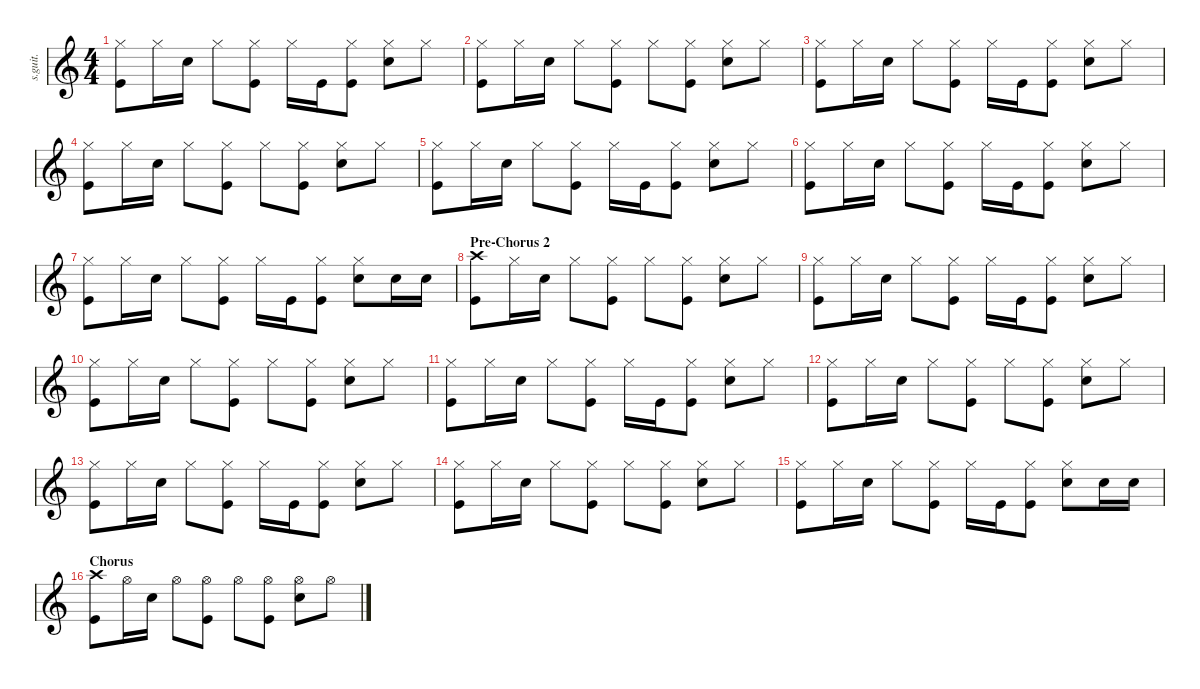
\defaultSystemsLayout 4
\hideDynamics
\bracketExtendMode nobrackets
\track ("Rob Bourdon" "s.guit.") {instrument percussion}
\staff {score}
\articulation defaults
\ts (4 4)
\tempo (110 hide)
\clef g2
\ks c
("Hi-Hat (closed)" "Kick (hit)").8{dy f} "Hi-Hat (closed)".16 "Snare (hit) 2".16 "Hi-Hat (closed)".8 ("Hi-Hat (closed)" "Kick (hit)").8 "Hi-Hat (closed)".16 "Kick (hit)".16 ("Hi-Hat (closed)" "Kick (hit)").8 ("Hi-Hat (closed)" "Snare (hit) 2").8 "Hi-Hat (closed)".8 |
("Hi-Hat (closed)" "Kick (hit)").8 "Hi-Hat (closed)".16 "Snare (hit) 2".16 "Hi-Hat (closed)".8 ("Hi-Hat (closed)" "Kick (hit)").8 "Hi-Hat (closed)".8 ("Hi-Hat (closed)" "Kick (hit)").8 ("Hi-Hat (closed)" "Snare (hit) 2").8 "Hi-Hat (closed)".8 |
("Hi-Hat (closed)" "Kick (hit)").8 "Hi-Hat (closed)".16 "Snare (hit) 2".16 "Hi-Hat (closed)".8 ("Hi-Hat (closed)" "Kick (hit)").8 "Hi-Hat (closed)".16 "Kick (hit)".16 ("Hi-Hat (closed)" "Kick (hit)").8 ("Hi-Hat (closed)" "Snare (hit) 2").8 "Hi-Hat (closed)".8 |
("Hi-Hat (closed)" "Kick (hit)").8 "Hi-Hat (closed)".16 "Snare (hit) 2".16 "Hi-Hat (closed)".8 ("Hi-Hat (closed)" "Kick (hit)").8 "Hi-Hat (closed)".8 ("Hi-Hat (closed)" "Kick (hit)").8 ("Hi-Hat (closed)" "Snare (hit) 2").8 "Hi-Hat (closed)".8 |
("Hi-Hat (closed)" "Kick (hit)").8 "Hi-Hat (closed)".16 "Snare (hit) 2".16 "Hi-Hat (closed)".8 ("Hi-Hat (closed)" "Kick (hit)").8 "Hi-Hat (closed)".16 "Kick (hit)".16 ("Hi-Hat (closed)" "Kick (hit)").8 ("Hi-Hat (closed)" "Snare (hit) 2").8 "Hi-Hat (closed)".8 |
("Hi-Hat (closed)" "Kick (hit)").8 "Hi-Hat (closed)".16 "Snare (hit) 2".16 "Hi-Hat (closed)".8 ("Hi-Hat (closed)" "Kick (hit)").8 "Hi-Hat (closed)".16 "Kick (hit)".16 ("Hi-Hat (closed)" "Kick (hit)").8 ("Hi-Hat (closed)" "Snare (hit) 2").8 "Hi-Hat (closed)".8 |
("Hi-Hat (closed)" "Kick (hit)").8 "Hi-Hat (closed)".16 "Snare (hit) 2".16 "Hi-Hat (closed)".8 ("Hi-Hat (closed)" "Kick (hit)").8 "Hi-Hat (closed)".16 "Kick (hit)".16 ("Hi-Hat (closed)" "Kick (hit)").8 ("Hi-Hat (closed)" "Snare (hit) 2").8 "Snare (hit) 2".16 "Snare (hit) 2".16 |
\section ("" "Pre-Chorus 2")
("Crash high (hit)" "Kick (hit)").8 "Hi-Hat (closed)".16 "Snare (hit) 2".16 "Hi-Hat (closed)".8 ("Hi-Hat (closed)" "Kick (hit)").8 "Hi-Hat (closed)".8 ("Hi-Hat (closed)" "Kick (hit)").8 ("Hi-Hat (closed)" "Snare (hit) 2").8 "Hi-Hat (closed)".8 |
("Hi-Hat (closed)" "Kick (hit)").8 "Hi-Hat (closed)".16 "Snare (hit) 2".16 "Hi-Hat (closed)".8 ("Hi-Hat (closed)" "Kick (hit)").8 "Hi-Hat (closed)".16 "Kick (hit)".16 ("Hi-Hat (closed)" "Kick (hit)").8 ("Hi-Hat (closed)" "Snare (hit) 2").8 "Hi-Hat (closed)".8 |
("Hi-Hat (closed)" "Kick (hit)").8 "Hi-Hat (closed)".16 "Snare (hit) 2".16 "Hi-Hat (closed)".8 ("Hi-Hat (closed)" "Kick (hit)").8 "Hi-Hat (closed)".8 ("Hi-Hat (closed)" "Kick (hit)").8 ("Hi-Hat (closed)" "Snare (hit) 2").8 "Hi-Hat (closed)".8 |
("Hi-Hat (closed)" "Kick (hit)").8 "Hi-Hat (closed)".16 "Snare (hit) 2".16 "Hi-Hat (closed)".8 ("Hi-Hat (closed)" "Kick (hit)").8 "Hi-Hat (closed)".16 "Kick (hit)".16 ("Hi-Hat (closed)" "Kick (hit)").8 ("Hi-Hat (closed)" "Snare (hit) 2").8 "Hi-Hat (closed)".8 |
("Hi-Hat (closed)" "Kick (hit)").8 "Hi-Hat (closed)".16 "Snare (hit) 2".16 "Hi-Hat (closed)".8 ("Hi-Hat (closed)" "Kick (hit)").8 "Hi-Hat (closed)".8 ("Hi-Hat (closed)" "Kick (hit)").8 ("Hi-Hat (closed)" "Snare (hit) 2").8 "Hi-Hat (closed)".8 |
("Hi-Hat (closed)" "Kick (hit)").8 "Hi-Hat (closed)".16 "Snare (hit) 2".16 "Hi-Hat (closed)".8 ("Hi-Hat (closed)" "Kick (hit)").8 "Hi-Hat (closed)".16 "Kick (hit)".16 ("Hi-Hat (closed)" "Kick (hit)").8 ("Hi-Hat (closed)" "Snare (hit) 2").8 "Hi-Hat (closed)".8 |
("Hi-Hat (closed)" "Kick (hit)").8 "Hi-Hat (closed)".16 "Snare (hit) 2".16 "Hi-Hat (closed)".8 ("Hi-Hat (closed)" "Kick (hit)").8 "Hi-Hat (closed)".8 ("Hi-Hat (closed)" "Kick (hit)").8 ("Hi-Hat (closed)" "Snare (hit) 2").8 "Hi-Hat (closed)".8 |
("Hi-Hat (closed)" "Kick (hit)").8 "Hi-Hat (closed)".16 "Snare (hit) 2".16 "Hi-Hat (closed)".8 ("Hi-Hat (closed)" "Kick (hit)").8 "Hi-Hat (closed)".16 "Kick (hit)".16 ("Hi-Hat (closed)" "Kick (hit)").8 ("Hi-Hat (closed)" "Snare (hit) 2").8 "Snare (hit) 2".16 "Snare (hit) 2".16 |
\section ("" "Chorus")
("Crash high (hit)" "Kick (hit)").8 "Hi-Hat (open)".16 "Snare (hit) 2".16 "Hi-Hat (open)".8 ("Hi-Hat (open)" "Kick (hit)").8 "Hi-Hat (open)".8 ("Hi-Hat (open)" "Kick (hit)").8 ("Hi-Hat (open)" "Snare (hit) 2").8 "Hi-Hat (open)".8
